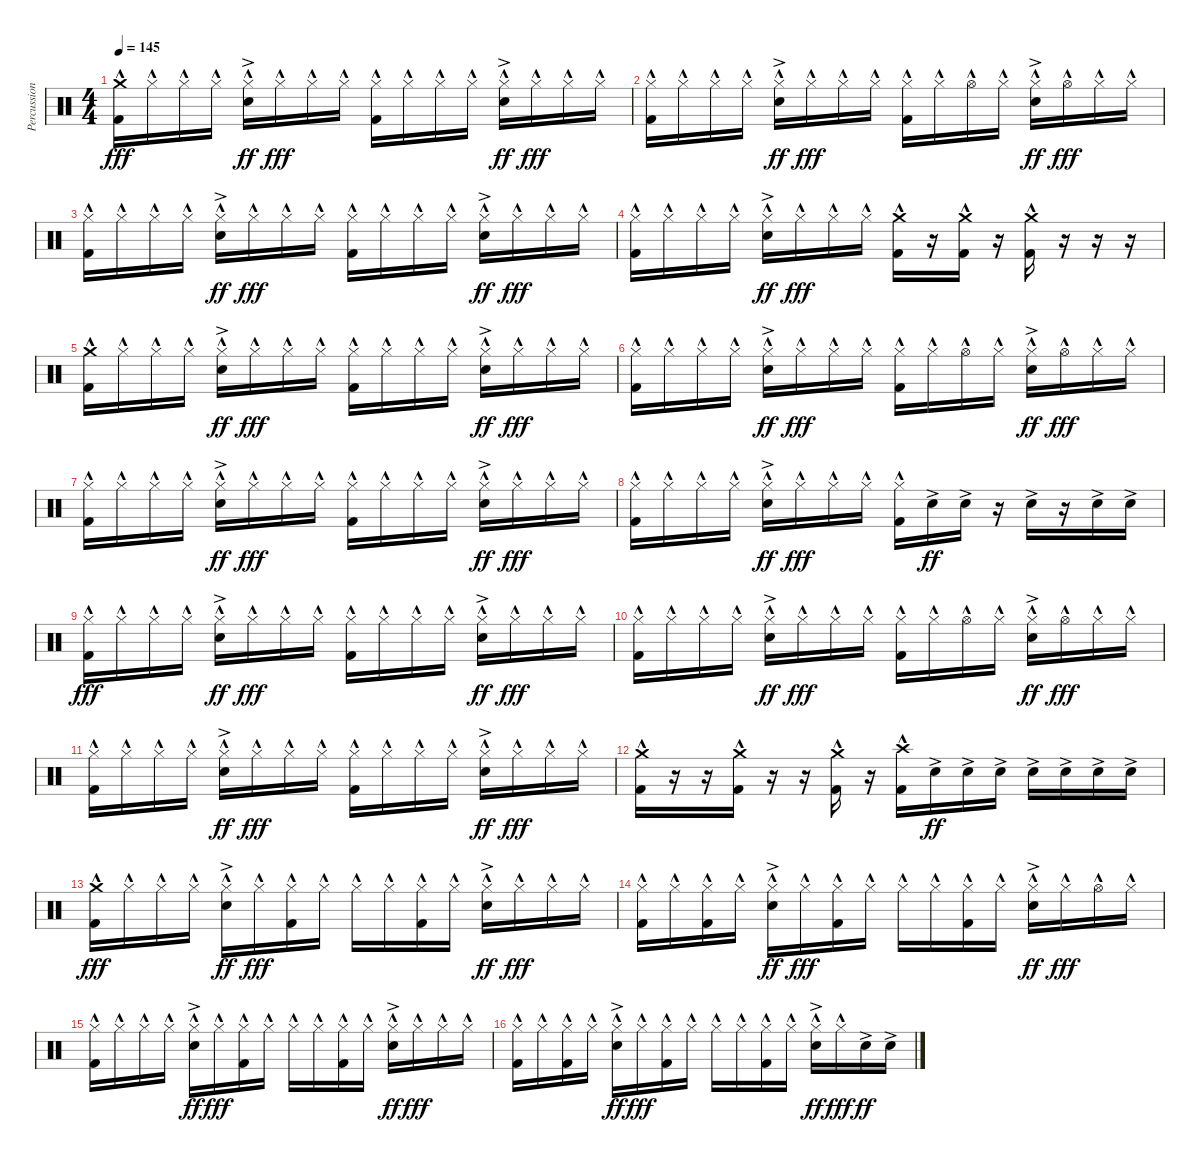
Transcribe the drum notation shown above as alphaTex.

\track ("Percussion" "Percussion") {instrument percussion bank 2}
\staff {score}
\articulation defaults
\ts (4 4)
\tempo 145
\clef neutral
\ks c
("Crash medium (hit)"{hac} "Kick (hit) 2"{hac}).16{dy fff} "Hi-Hat (closed)"{hac}.16 "Hi-Hat (closed)"{hac}.16 "Hi-Hat (closed)"{hac}.16 ("Hi-Hat (closed)"{hac} "Snare (hit) 2"{ac}).16{dy ff} "Hi-Hat (closed)"{hac}.16{dy fff} "Hi-Hat (closed)"{hac}.16 "Hi-Hat (closed)"{hac}.16 ("Hi-Hat (closed)"{hac} "Kick (hit) 2"{hac}).16 "Hi-Hat (closed)"{hac}.16 "Hi-Hat (closed)"{hac}.16 "Hi-Hat (closed)"{hac}.16 ("Hi-Hat (closed)"{hac} "Snare (hit) 2"{ac}).16{dy ff} "Hi-Hat (closed)"{hac}.16{dy fff} "Hi-Hat (closed)"{hac}.16 "Hi-Hat (closed)"{hac}.16 |
("Hi-Hat (closed)"{hac} "Kick (hit) 2"{hac}).16 "Hi-Hat (closed)"{hac}.16 "Hi-Hat (closed)"{hac}.16 "Hi-Hat (closed)"{hac}.16 ("Hi-Hat (closed)"{hac} "Snare (hit) 2"{ac}).16{dy ff} "Hi-Hat (closed)"{hac}.16{dy fff} "Hi-Hat (closed)"{hac}.16 "Hi-Hat (closed)"{hac}.16 ("Hi-Hat (closed)"{hac} "Kick (hit) 2"{hac}).16 "Hi-Hat (closed)"{hac}.16 "Hi-Hat (open)"{hac}.16 "Hi-Hat (closed)"{hac}.16 ("Hi-Hat (closed)"{hac} "Snare (hit) 2"{ac}).16{dy ff} "Hi-Hat (open)"{hac}.16{dy fff} "Hi-Hat (closed)"{hac}.16 "Hi-Hat (closed)"{hac}.16 |
("Hi-Hat (closed)"{hac} "Kick (hit) 2"{hac}).16 "Hi-Hat (closed)"{hac}.16 "Hi-Hat (closed)"{hac}.16 "Hi-Hat (closed)"{hac}.16 ("Hi-Hat (closed)"{hac} "Snare (hit) 2"{ac}).16{dy ff} "Hi-Hat (closed)"{hac}.16{dy fff} "Hi-Hat (closed)"{hac}.16 "Hi-Hat (closed)"{hac}.16 ("Hi-Hat (closed)"{hac} "Kick (hit) 2"{hac}).16 "Hi-Hat (closed)"{hac}.16 "Hi-Hat (closed)"{hac}.16 "Hi-Hat (closed)"{hac}.16 ("Hi-Hat (closed)"{hac} "Snare (hit) 2"{ac}).16{dy ff} "Hi-Hat (closed)"{hac}.16{dy fff} "Hi-Hat (closed)"{hac}.16 "Hi-Hat (closed)"{hac}.16 |
("Hi-Hat (closed)"{hac} "Kick (hit) 2"{hac}).16 "Hi-Hat (closed)"{hac}.16 "Hi-Hat (closed)"{hac}.16 "Hi-Hat (closed)"{hac}.16 ("Hi-Hat (closed)"{hac} "Snare (hit) 2"{ac}).16{dy ff} "Hi-Hat (closed)"{hac}.16{dy fff} "Hi-Hat (closed)"{hac}.16 "Hi-Hat (closed)"{hac}.16 ("Crash medium (hit)"{hac} "Kick (hit) 2"{hac}).16 r.16 ("Crash medium (hit)"{hac} "Kick (hit) 2"{hac}).16 r.16 ("Crash medium (hit)"{hac} "Kick (hit) 2"{hac}).16 r.16 r.16 r.16 |
("Crash medium (hit)"{hac} "Kick (hit) 2"{hac}).16 "Hi-Hat (closed)"{hac}.16 "Hi-Hat (closed)"{hac}.16 "Hi-Hat (closed)"{hac}.16 ("Hi-Hat (closed)"{hac} "Snare (hit) 2"{ac}).16{dy ff} "Hi-Hat (closed)"{hac}.16{dy fff} "Hi-Hat (closed)"{hac}.16 "Hi-Hat (closed)"{hac}.16 ("Hi-Hat (closed)"{hac} "Kick (hit) 2"{hac}).16 "Hi-Hat (closed)"{hac}.16 "Hi-Hat (closed)"{hac}.16 "Hi-Hat (closed)"{hac}.16 ("Hi-Hat (closed)"{hac} "Snare (hit) 2"{ac}).16{dy ff} "Hi-Hat (closed)"{hac}.16{dy fff} "Hi-Hat (closed)"{hac}.16 "Hi-Hat (closed)"{hac}.16 |
("Hi-Hat (closed)"{hac} "Kick (hit) 2"{hac}).16 "Hi-Hat (closed)"{hac}.16 "Hi-Hat (closed)"{hac}.16 "Hi-Hat (closed)"{hac}.16 ("Hi-Hat (closed)"{hac} "Snare (hit) 2"{ac}).16{dy ff} "Hi-Hat (closed)"{hac}.16{dy fff} "Hi-Hat (closed)"{hac}.16 "Hi-Hat (closed)"{hac}.16 ("Hi-Hat (closed)"{hac} "Kick (hit) 2"{hac}).16 "Hi-Hat (closed)"{hac}.16 "Hi-Hat (open)"{hac}.16 "Hi-Hat (closed)"{hac}.16 ("Hi-Hat (closed)"{hac} "Snare (hit) 2"{ac}).16{dy ff} "Hi-Hat (open)"{hac}.16{dy fff} "Hi-Hat (closed)"{hac}.16 "Hi-Hat (closed)"{hac}.16 |
("Hi-Hat (closed)"{hac} "Kick (hit) 2"{hac}).16 "Hi-Hat (closed)"{hac}.16 "Hi-Hat (closed)"{hac}.16 "Hi-Hat (closed)"{hac}.16 ("Hi-Hat (closed)"{hac} "Snare (hit) 2"{ac}).16{dy ff} "Hi-Hat (closed)"{hac}.16{dy fff} "Hi-Hat (closed)"{hac}.16 "Hi-Hat (closed)"{hac}.16 ("Hi-Hat (closed)"{hac} "Kick (hit) 2"{hac}).16 "Hi-Hat (closed)"{hac}.16 "Hi-Hat (closed)"{hac}.16 "Hi-Hat (closed)"{hac}.16 ("Hi-Hat (closed)"{hac} "Snare (hit) 2"{ac}).16{dy ff} "Hi-Hat (closed)"{hac}.16{dy fff} "Hi-Hat (closed)"{hac}.16 "Hi-Hat (closed)"{hac}.16 |
("Hi-Hat (closed)"{hac} "Kick (hit) 2"{hac}).16 "Hi-Hat (closed)"{hac}.16 "Hi-Hat (closed)"{hac}.16 "Hi-Hat (closed)"{hac}.16 ("Hi-Hat (closed)"{hac} "Snare (hit) 2"{ac}).16{dy ff} "Hi-Hat (closed)"{hac}.16{dy fff} "Hi-Hat (closed)"{hac}.16 "Hi-Hat (closed)"{hac}.16 ("Hi-Hat (closed)"{hac} "Kick (hit) 2"{hac}).16 "Snare (hit) 2"{ac}.16{dy ff} "Snare (hit) 2"{ac}.16 r.16 "Snare (hit) 2"{ac}.16 r.16 "Snare (hit) 2"{ac}.16 "Snare (hit) 2"{ac}.16 |
("Hi-Hat (closed)"{hac} "Kick (hit) 2"{hac}).16{dy fff} "Hi-Hat (closed)"{hac}.16 "Hi-Hat (closed)"{hac}.16 "Hi-Hat (closed)"{hac}.16 ("Hi-Hat (closed)"{hac} "Snare (hit) 2"{ac}).16{dy ff} "Hi-Hat (closed)"{hac}.16{dy fff} "Hi-Hat (closed)"{hac}.16 "Hi-Hat (closed)"{hac}.16 ("Hi-Hat (closed)"{hac} "Kick (hit) 2"{hac}).16 "Hi-Hat (closed)"{hac}.16 "Hi-Hat (closed)"{hac}.16 "Hi-Hat (closed)"{hac}.16 ("Hi-Hat (closed)"{hac} "Snare (hit) 2"{ac}).16{dy ff} "Hi-Hat (closed)"{hac}.16{dy fff} "Hi-Hat (closed)"{hac}.16 "Hi-Hat (closed)"{hac}.16 |
("Hi-Hat (closed)"{hac} "Kick (hit) 2"{hac}).16 "Hi-Hat (closed)"{hac}.16 "Hi-Hat (closed)"{hac}.16 "Hi-Hat (closed)"{hac}.16 ("Hi-Hat (closed)"{hac} "Snare (hit) 2"{ac}).16{dy ff} "Hi-Hat (closed)"{hac}.16{dy fff} "Hi-Hat (closed)"{hac}.16 "Hi-Hat (closed)"{hac}.16 ("Hi-Hat (closed)"{hac} "Kick (hit) 2"{hac}).16 "Hi-Hat (closed)"{hac}.16 "Hi-Hat (open)"{hac}.16 "Hi-Hat (closed)"{hac}.16 ("Hi-Hat (closed)"{hac} "Snare (hit) 2"{ac}).16{dy ff} "Hi-Hat (open)"{hac}.16{dy fff} "Hi-Hat (closed)"{hac}.16 "Hi-Hat (closed)"{hac}.16 |
("Hi-Hat (closed)"{hac} "Kick (hit) 2"{hac}).16 "Hi-Hat (closed)"{hac}.16 "Hi-Hat (closed)"{hac}.16 "Hi-Hat (closed)"{hac}.16 ("Hi-Hat (closed)"{hac} "Snare (hit) 2"{ac}).16{dy ff} "Hi-Hat (closed)"{hac}.16{dy fff} "Hi-Hat (closed)"{hac}.16 "Hi-Hat (closed)"{hac}.16 ("Hi-Hat (closed)"{hac} "Kick (hit) 2"{hac}).16 "Hi-Hat (closed)"{hac}.16 "Hi-Hat (closed)"{hac}.16 "Hi-Hat (closed)"{hac}.16 ("Hi-Hat (closed)"{hac} "Snare (hit) 2"{ac}).16{dy ff} "Hi-Hat (closed)"{hac}.16{dy fff} "Hi-Hat (closed)"{hac}.16 "Hi-Hat (closed)"{hac}.16 |
("Crash medium (hit)"{hac} "Kick (hit) 2"{hac}).16 r.16 r.16 ("Crash medium (hit)"{hac} "Kick (hit) 2"{hac}).16 r.16 r.16 ("Crash medium (hit)"{hac} "Kick (hit) 2"{hac}).16 r.16 ("Crash high (hit)"{hac} "Kick (hit) 2"{hac}).16 "Snare (hit) 2"{ac}.16{dy ff} "Snare (hit) 2"{ac}.16 "Snare (hit) 2"{ac}.16 "Snare (hit) 2"{ac}.16 "Snare (hit) 2"{ac}.16 "Snare (hit) 2"{ac}.16 "Snare (hit) 2"{ac}.16 |
("Crash medium (hit)"{hac} "Kick (hit) 2"{hac}).16{dy fff} "Hi-Hat (closed)"{hac}.16 "Hi-Hat (closed)"{hac}.16 "Hi-Hat (closed)"{hac}.16 ("Hi-Hat (closed)"{hac} "Snare (hit) 2"{ac}).16{dy ff} "Hi-Hat (closed)"{hac}.16{dy fff} ("Hi-Hat (closed)"{hac} "Kick (hit) 2"{hac}).16 "Hi-Hat (closed)"{hac}.16 "Hi-Hat (closed)"{hac}.16 "Hi-Hat (closed)"{hac}.16 ("Hi-Hat (closed)"{hac} "Kick (hit) 2"{hac}).16 "Hi-Hat (closed)"{hac}.16 ("Hi-Hat (closed)"{hac} "Snare (hit) 2"{ac}).16{dy ff} "Hi-Hat (closed)"{hac}.16{dy fff} "Hi-Hat (closed)"{hac}.16 "Hi-Hat (closed)"{hac}.16 |
("Hi-Hat (closed)"{hac} "Kick (hit) 2"{hac}).16 "Hi-Hat (closed)"{hac}.16 ("Hi-Hat (closed)"{hac} "Kick (hit) 2"{hac}).16 "Hi-Hat (closed)"{hac}.16 ("Hi-Hat (closed)"{hac} "Snare (hit) 2"{ac}).16{dy ff} "Hi-Hat (closed)"{hac}.16{dy fff} ("Hi-Hat (closed)"{hac} "Kick (hit) 2"{hac}).16 "Hi-Hat (closed)"{hac}.16 "Hi-Hat (closed)"{hac}.16 "Hi-Hat (closed)"{hac}.16 ("Hi-Hat (closed)"{hac} "Kick (hit) 2"{hac}).16 "Hi-Hat (closed)"{hac}.16 ("Hi-Hat (closed)"{hac} "Snare (hit) 2"{ac}).16{dy ff} "Hi-Hat (closed)"{hac}.16{dy fff} "Hi-Hat (open)"{hac}.16 "Hi-Hat (closed)"{hac}.16 |
("Hi-Hat (closed)"{hac} "Kick (hit) 2"{hac}).16 "Hi-Hat (closed)"{hac}.16 "Hi-Hat (closed)"{hac}.16 "Hi-Hat (closed)"{hac}.16 ("Hi-Hat (closed)"{hac} "Snare (hit) 2"{ac}).16{dy ff} "Hi-Hat (closed)"{hac}.16{dy fff} ("Hi-Hat (closed)"{hac} "Kick (hit) 2"{hac}).16 "Hi-Hat (closed)"{hac}.16 "Hi-Hat (closed)"{hac}.16 "Hi-Hat (closed)"{hac}.16 ("Hi-Hat (closed)"{hac} "Kick (hit) 2"{hac}).16 "Hi-Hat (closed)"{hac}.16 ("Hi-Hat (closed)"{hac} "Snare (hit) 2"{ac}).16{dy ff} "Hi-Hat (closed)"{hac}.16{dy fff} "Hi-Hat (closed)"{hac}.16 "Hi-Hat (closed)"{hac}.16 |
("Hi-Hat (closed)"{hac} "Kick (hit) 2"{hac}).16 "Hi-Hat (closed)"{hac}.16 ("Hi-Hat (closed)"{hac} "Kick (hit) 2"{hac}).16 "Hi-Hat (closed)"{hac}.16 ("Hi-Hat (closed)"{hac} "Snare (hit) 2"{ac}).16{dy ff} "Hi-Hat (closed)"{hac}.16{dy fff} ("Hi-Hat (closed)"{hac} "Kick (hit) 2"{hac}).16 "Hi-Hat (closed)"{hac}.16 "Hi-Hat (closed)"{hac}.16 "Hi-Hat (closed)"{hac}.16 ("Hi-Hat (closed)"{hac} "Kick (hit) 2"{hac}).16 "Hi-Hat (closed)"{hac}.16 ("Hi-Hat (closed)"{hac} "Snare (hit) 2"{ac}).16{dy ff} "Hi-Hat (closed)"{hac}.16{dy fff} "Snare (hit) 2"{ac}.16{dy ff} "Snare (hit) 2"{ac}.16
